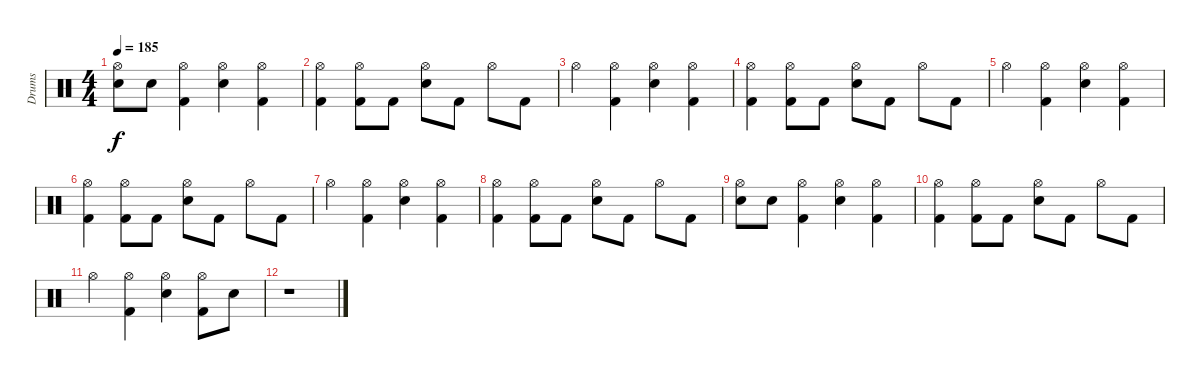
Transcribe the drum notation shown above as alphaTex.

\track ("Drums" "Drums") {instrument percussion}
\staff {score}
\articulation defaults
\ts (4 4)
\tempo 185
\clef neutral
\ks c
("Hi-Hat (open)" "Electric Snare (hit)").8{dy f} "Electric Snare (hit)".8 ("Hi-Hat (open)" "Kick (hit) 2").4 ("Hi-Hat (open)" "Electric Snare (hit)").4 ("Hi-Hat (open)" "Kick (hit) 2").4 |
("Hi-Hat (open)" "Kick (hit) 2").4 ("Hi-Hat (open)" "Kick (hit) 2").8 "Kick (hit) 2".8 ("Hi-Hat (open)" "Electric Snare (hit)").8 "Kick (hit) 2".8 "Hi-Hat (open)".8 "Kick (hit) 2".8 |
"Hi-Hat (open)".4 ("Hi-Hat (open)" "Kick (hit) 2").4 ("Hi-Hat (open)" "Electric Snare (hit)").4 ("Hi-Hat (open)" "Kick (hit) 2").4 |
("Hi-Hat (open)" "Kick (hit) 2").4 ("Hi-Hat (open)" "Kick (hit) 2").8 "Kick (hit) 2".8 ("Hi-Hat (open)" "Electric Snare (hit)").8 "Kick (hit) 2".8 "Hi-Hat (open)".8 "Kick (hit) 2".8 |
"Hi-Hat (open)".4 ("Hi-Hat (open)" "Kick (hit) 2").4 ("Hi-Hat (open)" "Electric Snare (hit)").4 ("Hi-Hat (open)" "Kick (hit) 2").4 |
("Hi-Hat (open)" "Kick (hit) 2").4 ("Hi-Hat (open)" "Kick (hit) 2").8 "Kick (hit) 2".8 ("Hi-Hat (open)" "Electric Snare (hit)").8 "Kick (hit) 2".8 "Hi-Hat (open)".8 "Kick (hit) 2".8 |
"Hi-Hat (open)".4 ("Hi-Hat (open)" "Kick (hit) 2").4 ("Hi-Hat (open)" "Electric Snare (hit)").4 ("Hi-Hat (open)" "Kick (hit) 2").4 |
("Hi-Hat (open)" "Kick (hit) 2").4 ("Hi-Hat (open)" "Kick (hit) 2").8 "Kick (hit) 2".8 ("Hi-Hat (open)" "Electric Snare (hit)").8 "Kick (hit) 2".8 "Hi-Hat (open)".8 "Kick (hit) 2".8 |
("Hi-Hat (open)" "Electric Snare (hit)").8 "Electric Snare (hit)".8 ("Hi-Hat (open)" "Kick (hit) 2").4 ("Hi-Hat (open)" "Electric Snare (hit)").4 ("Hi-Hat (open)" "Kick (hit) 2").4 |
("Hi-Hat (open)" "Kick (hit) 2").4 ("Hi-Hat (open)" "Kick (hit) 2").8 "Kick (hit) 2".8 ("Hi-Hat (open)" "Electric Snare (hit)").8 "Kick (hit) 2".8 "Hi-Hat (open)".8 "Kick (hit) 2".8 |
"Hi-Hat (open)".4 ("Hi-Hat (open)" "Kick (hit) 2").4 ("Hi-Hat (open)" "Electric Snare (hit)").4 ("Hi-Hat (open)" "Kick (hit) 2").8 "Electric Snare (hit)".8 |
r.1
